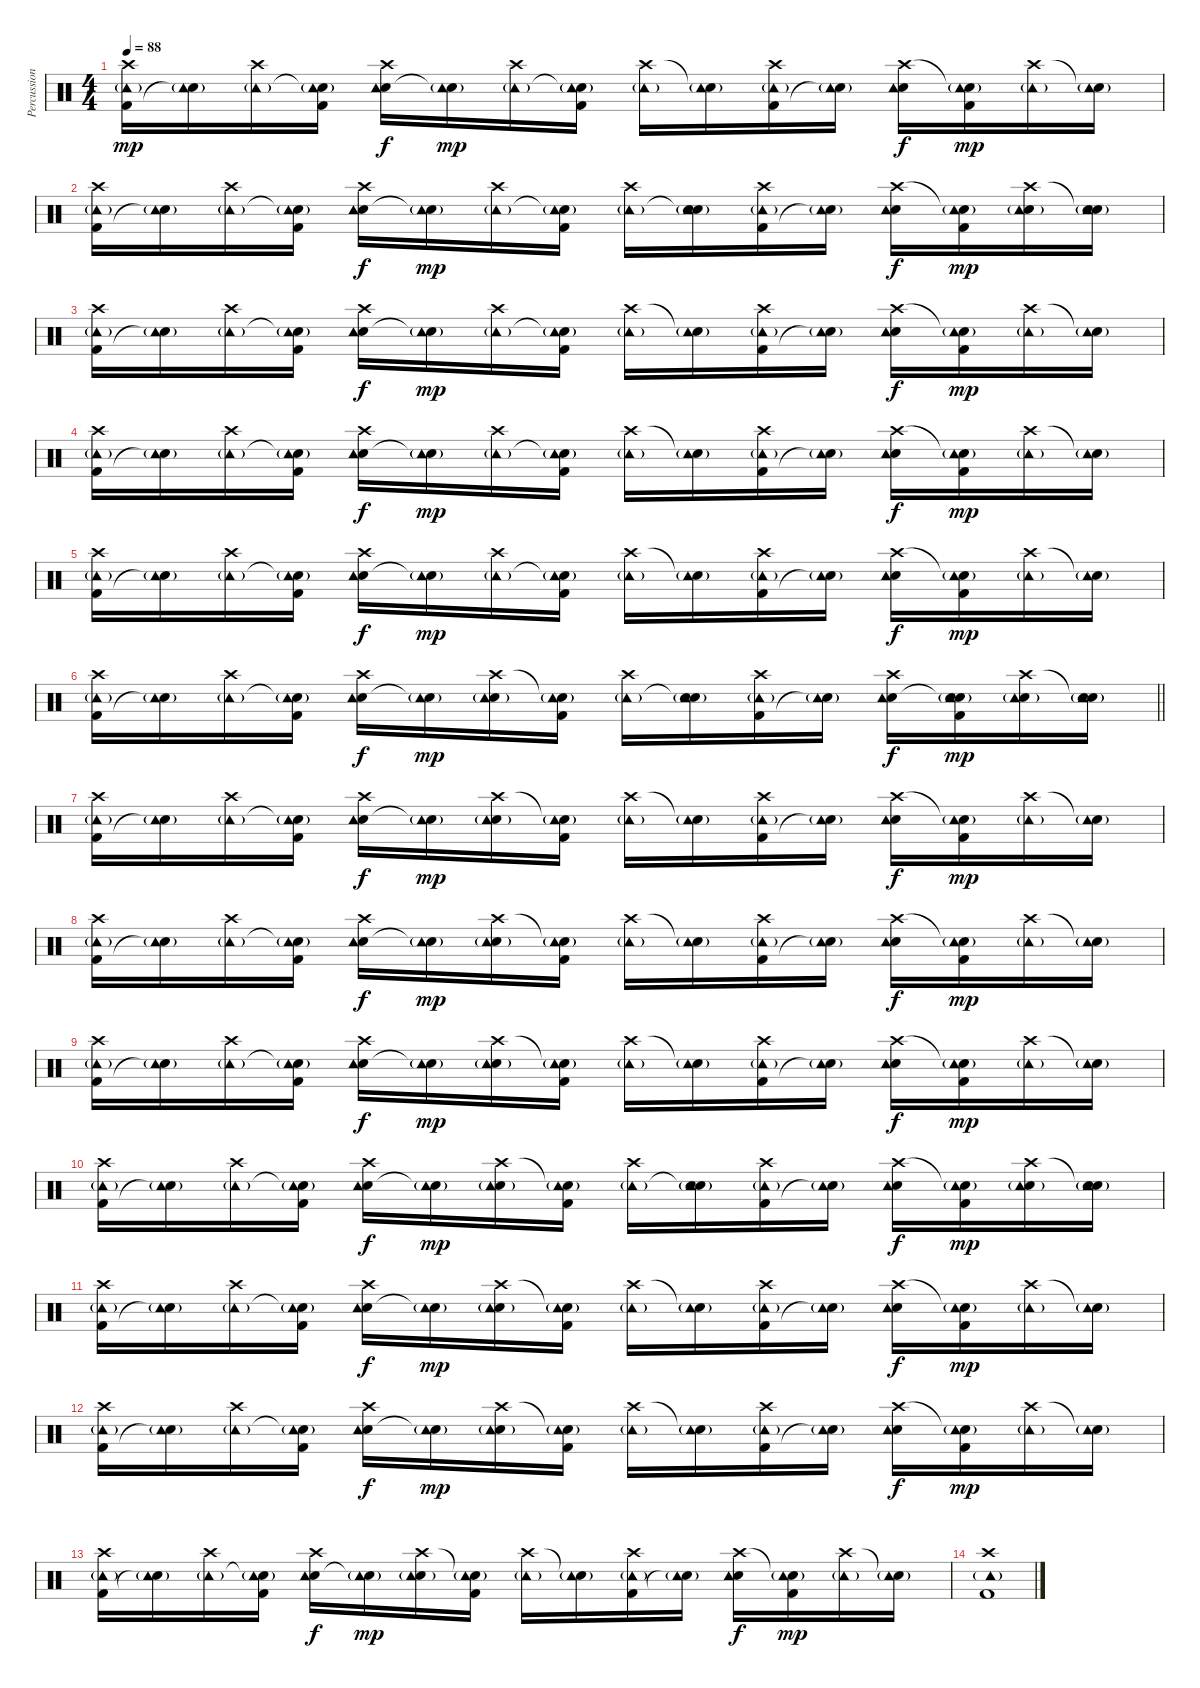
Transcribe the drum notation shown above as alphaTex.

\track ("Percussion" "Percussion") {instrument percussion}
\staff {score}
\articulation defaults
\ts (4 4)
\tempo 88
\clef neutral
\ks c
("Kick (hit) 2" "Crash high (hit)" "Tambourine (hit)"{g}).16{dy mp} ("Snare (hit)"{t} "Tambourine (hit)"{g}).16 ("Crash high (hit)" "Tambourine (hit)"{g}).16 ("Kick (hit) 2" "Snare (hit)"{t} "Tambourine (hit)"{g}).16 ("Electric Snare (hit)" "Crash high (hit)" "Tambourine (hit)").16{dy f} ("Snare (hit)"{t} "Tambourine (hit)"{g}).16{dy mp} ("Crash high (hit)" "Tambourine (hit)"{g}).16 ("Kick (hit) 2" "Snare (hit)"{t} "Tambourine (hit)"{g}).16 ("Crash high (hit)" "Tambourine (hit)"{g}).16 ("Snare (hit)"{t} "Tambourine (hit)"{g}).16 ("Kick (hit) 2" "Crash high (hit)" "Tambourine (hit)"{g}).16 ("Snare (hit)"{t} "Tambourine (hit)"{g}).16 ("Electric Snare (hit)" "Crash high (hit)" "Tambourine (hit)").16{dy f} ("Kick (hit) 2" "Snare (hit)"{t} "Tambourine (hit)"{g}).16{dy mp} ("Crash high (hit)" "Tambourine (hit)"{g}).16 ("Snare (hit)"{t} "Tambourine (hit)"{g}).16 |
("Kick (hit) 2" "Crash high (hit)" "Tambourine (hit)"{g}).16 ("Snare (hit)"{t} "Tambourine (hit)"{g}).16 ("Crash high (hit)" "Tambourine (hit)"{g}).16 ("Kick (hit) 2" "Snare (hit)"{t} "Tambourine (hit)"{g}).16 ("Electric Snare (hit)" "Crash high (hit)" "Tambourine (hit)").16{dy f} ("Snare (hit)"{t} "Tambourine (hit)"{g}).16{dy mp} ("Crash high (hit)" "Tambourine (hit)"{g}).16 ("Kick (hit) 2" "Snare (hit)"{t} "Tambourine (hit)"{g}).16 ("Crash high (hit)" "Tambourine (hit)"{g}).16 ("Electric Snare (hit)" "Snare (hit)"{t} "Tambourine (hit)"{g}).16 ("Kick (hit) 2" "Crash high (hit)" "Tambourine (hit)"{g}).16 ("Snare (hit)"{t} "Tambourine (hit)"{g}).16 ("Electric Snare (hit)" "Crash high (hit)" "Tambourine (hit)").16{dy f} ("Kick (hit) 2" "Snare (hit)"{t} "Tambourine (hit)"{g}).16{dy mp} ("Electric Snare (hit)" "Crash high (hit)" "Tambourine (hit)"{g}).16 ("Electric Snare (hit)" "Snare (hit)"{t} "Tambourine (hit)"{g}).16 |
("Kick (hit) 2" "Crash high (hit)" "Tambourine (hit)"{g}).16 ("Snare (hit)"{t} "Tambourine (hit)"{g}).16 ("Crash high (hit)" "Tambourine (hit)"{g}).16 ("Kick (hit) 2" "Snare (hit)"{t} "Tambourine (hit)"{g}).16 ("Electric Snare (hit)" "Crash high (hit)" "Tambourine (hit)").16{dy f} ("Snare (hit)"{t} "Tambourine (hit)"{g}).16{dy mp} ("Crash high (hit)" "Tambourine (hit)"{g}).16 ("Kick (hit) 2" "Snare (hit)"{t} "Tambourine (hit)"{g}).16 ("Crash high (hit)" "Tambourine (hit)"{g}).16 ("Snare (hit)"{t} "Tambourine (hit)"{g}).16 ("Kick (hit) 2" "Crash high (hit)" "Tambourine (hit)"{g}).16 ("Snare (hit)"{t} "Tambourine (hit)"{g}).16 ("Electric Snare (hit)" "Crash high (hit)" "Tambourine (hit)").16{dy f} ("Kick (hit) 2" "Snare (hit)"{t} "Tambourine (hit)"{g}).16{dy mp} ("Crash high (hit)" "Tambourine (hit)"{g}).16 ("Snare (hit)"{t} "Tambourine (hit)"{g}).16 |
("Kick (hit) 2" "Crash high (hit)" "Tambourine (hit)"{g}).16 ("Snare (hit)"{t} "Tambourine (hit)"{g}).16 ("Crash high (hit)" "Tambourine (hit)"{g}).16 ("Kick (hit) 2" "Snare (hit)"{t} "Tambourine (hit)"{g}).16 ("Electric Snare (hit)" "Crash high (hit)" "Tambourine (hit)").16{dy f} ("Snare (hit)"{t} "Tambourine (hit)"{g}).16{dy mp} ("Crash high (hit)" "Tambourine (hit)"{g}).16 ("Kick (hit) 2" "Snare (hit)"{t} "Tambourine (hit)"{g}).16 ("Crash high (hit)" "Tambourine (hit)"{g}).16 ("Snare (hit)"{t} "Tambourine (hit)"{g}).16 ("Kick (hit) 2" "Crash high (hit)" "Tambourine (hit)"{g}).16 ("Snare (hit)"{t} "Tambourine (hit)"{g}).16 ("Electric Snare (hit)" "Crash high (hit)" "Tambourine (hit)").16{dy f} ("Kick (hit) 2" "Snare (hit)"{t} "Tambourine (hit)"{g}).16{dy mp} ("Crash high (hit)" "Tambourine (hit)"{g}).16 ("Snare (hit)"{t} "Tambourine (hit)"{g}).16 |
("Kick (hit) 2" "Crash high (hit)" "Tambourine (hit)"{g}).16 ("Snare (hit)"{t} "Tambourine (hit)"{g}).16 ("Crash high (hit)" "Tambourine (hit)"{g}).16 ("Kick (hit) 2" "Snare (hit)"{t} "Tambourine (hit)"{g}).16 ("Electric Snare (hit)" "Crash high (hit)" "Tambourine (hit)").16{dy f} ("Snare (hit)"{t} "Tambourine (hit)"{g}).16{dy mp} ("Crash high (hit)" "Tambourine (hit)"{g}).16 ("Kick (hit) 2" "Snare (hit)"{t} "Tambourine (hit)"{g}).16 ("Crash high (hit)" "Tambourine (hit)"{g}).16 ("Snare (hit)"{t} "Tambourine (hit)"{g}).16 ("Kick (hit) 2" "Crash high (hit)" "Tambourine (hit)"{g}).16 ("Snare (hit)"{t} "Tambourine (hit)"{g}).16 ("Electric Snare (hit)" "Crash high (hit)" "Tambourine (hit)").16{dy f} ("Kick (hit) 2" "Snare (hit)"{t} "Tambourine (hit)"{g}).16{dy mp} ("Crash high (hit)" "Tambourine (hit)"{g}).16 ("Snare (hit)"{t} "Tambourine (hit)"{g}).16 |
\barLineRight lightlight
("Kick (hit) 2" "Crash high (hit)" "Tambourine (hit)"{g}).16 ("Snare (hit)"{t} "Tambourine (hit)"{g}).16 ("Crash high (hit)" "Tambourine (hit)"{g}).16 ("Kick (hit) 2" "Snare (hit)"{t} "Tambourine (hit)"{g}).16 ("Electric Snare (hit)" "Crash high (hit)" "Tambourine (hit)").16{dy f} ("Snare (hit)"{t} "Tambourine (hit)"{g}).16{dy mp} ("Electric Snare (hit)" "Crash high (hit)" "Tambourine (hit)"{g}).16 ("Kick (hit) 2" "Snare (hit)"{t} "Tambourine (hit)"{g}).16 ("Crash high (hit)" "Tambourine (hit)"{g}).16 ("Electric Snare (hit)" "Snare (hit)"{t} "Tambourine (hit)"{g}).16 ("Kick (hit) 2" "Crash high (hit)" "Tambourine (hit)"{g}).16 ("Snare (hit)"{t} "Tambourine (hit)"{g}).16 ("Electric Snare (hit)" "Crash high (hit)" "Tambourine (hit)").16{dy f} ("Kick (hit) 2" "Electric Snare (hit)" "Snare (hit)"{t} "Tambourine (hit)"{g}).16{dy mp} ("Electric Snare (hit)" "Crash high (hit)" "Tambourine (hit)"{g}).16 ("Electric Snare (hit)" "Snare (hit)"{t} "Tambourine (hit)"{g}).16 |
("Kick (hit) 2" "Crash high (hit)" "Tambourine (hit)"{g}).16 ("Snare (hit)"{t} "Tambourine (hit)"{g}).16 ("Crash high (hit)" "Tambourine (hit)"{g}).16 ("Kick (hit) 2" "Snare (hit)"{t} "Tambourine (hit)"{g}).16 ("Electric Snare (hit)" "Crash high (hit)" "Tambourine (hit)").16{dy f} ("Snare (hit)"{t} "Tambourine (hit)"{g}).16{dy mp} ("Electric Snare (hit)" "Crash high (hit)" "Tambourine (hit)"{g}).16 ("Kick (hit) 2" "Snare (hit)"{t} "Tambourine (hit)"{g}).16 ("Crash high (hit)" "Tambourine (hit)"{g}).16 ("Snare (hit)"{t} "Tambourine (hit)"{g}).16 ("Kick (hit) 2" "Crash high (hit)" "Tambourine (hit)"{g}).16 ("Snare (hit)"{t} "Tambourine (hit)"{g}).16 ("Electric Snare (hit)" "Crash high (hit)" "Tambourine (hit)").16{dy f} ("Kick (hit) 2" "Snare (hit)"{t} "Tambourine (hit)"{g}).16{dy mp} ("Crash high (hit)" "Tambourine (hit)"{g}).16 ("Snare (hit)"{t} "Tambourine (hit)"{g}).16 |
("Kick (hit) 2" "Crash high (hit)" "Tambourine (hit)"{g}).16 ("Snare (hit)"{t} "Tambourine (hit)"{g}).16 ("Crash high (hit)" "Tambourine (hit)"{g}).16 ("Kick (hit) 2" "Snare (hit)"{t} "Tambourine (hit)"{g}).16 ("Electric Snare (hit)" "Crash high (hit)" "Tambourine (hit)").16{dy f} ("Snare (hit)"{t} "Tambourine (hit)"{g}).16{dy mp} ("Electric Snare (hit)" "Crash high (hit)" "Tambourine (hit)"{g}).16 ("Kick (hit) 2" "Snare (hit)"{t} "Tambourine (hit)"{g}).16 ("Crash high (hit)" "Tambourine (hit)"{g}).16 ("Snare (hit)"{t} "Tambourine (hit)"{g}).16 ("Kick (hit) 2" "Crash high (hit)" "Tambourine (hit)"{g}).16 ("Snare (hit)"{t} "Tambourine (hit)"{g}).16 ("Electric Snare (hit)" "Crash high (hit)" "Tambourine (hit)").16{dy f} ("Kick (hit) 2" "Snare (hit)"{t} "Tambourine (hit)"{g}).16{dy mp} ("Crash high (hit)" "Tambourine (hit)"{g}).16 ("Snare (hit)"{t} "Tambourine (hit)"{g}).16 |
("Kick (hit) 2" "Crash high (hit)" "Tambourine (hit)"{g}).16 ("Snare (hit)"{t} "Tambourine (hit)"{g}).16 ("Crash high (hit)" "Tambourine (hit)"{g}).16 ("Kick (hit) 2" "Snare (hit)"{t} "Tambourine (hit)"{g}).16 ("Electric Snare (hit)" "Crash high (hit)" "Tambourine (hit)").16{dy f} ("Snare (hit)"{t} "Tambourine (hit)"{g}).16{dy mp} ("Electric Snare (hit)" "Crash high (hit)" "Tambourine (hit)"{g}).16 ("Kick (hit) 2" "Snare (hit)"{t} "Tambourine (hit)"{g}).16 ("Crash high (hit)" "Tambourine (hit)"{g}).16 ("Snare (hit)"{t} "Tambourine (hit)"{g}).16 ("Kick (hit) 2" "Crash high (hit)" "Tambourine (hit)"{g}).16 ("Snare (hit)"{t} "Tambourine (hit)"{g}).16 ("Electric Snare (hit)" "Crash high (hit)" "Tambourine (hit)").16{dy f} ("Kick (hit) 2" "Snare (hit)"{t} "Tambourine (hit)"{g}).16{dy mp} ("Crash high (hit)" "Tambourine (hit)"{g}).16 ("Snare (hit)"{t} "Tambourine (hit)"{g}).16 |
("Kick (hit) 2" "Crash high (hit)" "Tambourine (hit)"{g}).16 ("Snare (hit)"{t} "Tambourine (hit)"{g}).16 ("Crash high (hit)" "Tambourine (hit)"{g}).16 ("Kick (hit) 2" "Snare (hit)"{t} "Tambourine (hit)"{g}).16 ("Electric Snare (hit)" "Crash high (hit)" "Tambourine (hit)").16{dy f} ("Snare (hit)"{t} "Tambourine (hit)"{g}).16{dy mp} ("Electric Snare (hit)" "Crash high (hit)" "Tambourine (hit)"{g}).16 ("Kick (hit) 2" "Snare (hit)"{t} "Tambourine (hit)"{g}).16 ("Crash high (hit)" "Tambourine (hit)"{g}).16 ("Electric Snare (hit)" "Snare (hit)"{t} "Tambourine (hit)"{g}).16 ("Kick (hit) 2" "Crash high (hit)" "Tambourine (hit)"{g}).16 ("Snare (hit)"{t} "Tambourine (hit)"{g}).16 ("Electric Snare (hit)" "Crash high (hit)" "Tambourine (hit)").16{dy f} ("Kick (hit) 2" "Snare (hit)"{t} "Tambourine (hit)"{g}).16{dy mp} ("Electric Snare (hit)" "Crash high (hit)" "Tambourine (hit)"{g}).16 ("Electric Snare (hit)" "Snare (hit)"{t} "Tambourine (hit)"{g}).16 |
("Kick (hit) 2" "Crash high (hit)" "Tambourine (hit)"{g}).16 ("Snare (hit)"{t} "Tambourine (hit)"{g}).16 ("Crash high (hit)" "Tambourine (hit)"{g}).16 ("Kick (hit) 2" "Snare (hit)"{t} "Tambourine (hit)"{g}).16 ("Electric Snare (hit)" "Crash high (hit)" "Tambourine (hit)").16{dy f} ("Snare (hit)"{t} "Tambourine (hit)"{g}).16{dy mp} ("Electric Snare (hit)" "Crash high (hit)" "Tambourine (hit)"{g}).16 ("Kick (hit) 2" "Snare (hit)"{t} "Tambourine (hit)"{g}).16 ("Crash high (hit)" "Tambourine (hit)"{g}).16 ("Snare (hit)"{t} "Tambourine (hit)"{g}).16 ("Kick (hit) 2" "Crash high (hit)" "Tambourine (hit)"{g}).16 ("Snare (hit)"{t} "Tambourine (hit)"{g}).16 ("Electric Snare (hit)" "Crash high (hit)" "Tambourine (hit)").16{dy f} ("Kick (hit) 2" "Snare (hit)"{t} "Tambourine (hit)"{g}).16{dy mp} ("Crash high (hit)" "Tambourine (hit)"{g}).16 ("Snare (hit)"{t} "Tambourine (hit)"{g}).16 |
("Kick (hit) 2" "Crash high (hit)" "Tambourine (hit)"{g}).16 ("Snare (hit)"{t} "Tambourine (hit)"{g}).16 ("Crash high (hit)" "Tambourine (hit)"{g}).16 ("Kick (hit) 2" "Snare (hit)"{t} "Tambourine (hit)"{g}).16 ("Electric Snare (hit)" "Crash high (hit)" "Tambourine (hit)").16{dy f} ("Snare (hit)"{t} "Tambourine (hit)"{g}).16{dy mp} ("Electric Snare (hit)" "Crash high (hit)" "Tambourine (hit)"{g}).16 ("Kick (hit) 2" "Snare (hit)"{t} "Tambourine (hit)"{g}).16 ("Crash high (hit)" "Tambourine (hit)"{g}).16 ("Snare (hit)"{t} "Tambourine (hit)"{g}).16 ("Kick (hit) 2" "Crash high (hit)" "Tambourine (hit)"{g}).16 ("Snare (hit)"{t} "Tambourine (hit)"{g}).16 ("Electric Snare (hit)" "Crash high (hit)" "Tambourine (hit)").16{dy f} ("Kick (hit) 2" "Snare (hit)"{t} "Tambourine (hit)"{g}).16{dy mp} ("Crash high (hit)" "Tambourine (hit)"{g}).16 ("Snare (hit)"{t} "Tambourine (hit)"{g}).16 |
("Kick (hit) 2" "Crash high (hit)" "Tambourine (hit)"{g}).16 ("Snare (hit)"{t} "Tambourine (hit)"{g}).16 ("Crash high (hit)" "Tambourine (hit)"{g}).16 ("Kick (hit) 2" "Snare (hit)"{t} "Tambourine (hit)"{g}).16 ("Electric Snare (hit)" "Crash high (hit)" "Tambourine (hit)").16{dy f} ("Snare (hit)"{t} "Tambourine (hit)"{g}).16{dy mp} ("Electric Snare (hit)" "Crash high (hit)" "Tambourine (hit)"{g}).16 ("Kick (hit) 2" "Snare (hit)"{t} "Tambourine (hit)"{g}).16 ("Crash high (hit)" "Tambourine (hit)"{g}).16 ("Snare (hit)"{t} "Tambourine (hit)"{g}).16 ("Kick (hit) 2" "Crash high (hit)" "Tambourine (hit)"{g}).16 ("Snare (hit)"{t} "Tambourine (hit)"{g}).16 ("Electric Snare (hit)" "Crash high (hit)" "Tambourine (hit)").16{dy f} ("Kick (hit) 2" "Snare (hit)"{t} "Tambourine (hit)"{g}).16{dy mp} ("Crash high (hit)" "Tambourine (hit)"{g}).16 ("Snare (hit)"{t} "Tambourine (hit)"{g}).16 |
("Kick (hit) 2" "Crash high (hit)" "Tambourine (hit)"{g}).1
